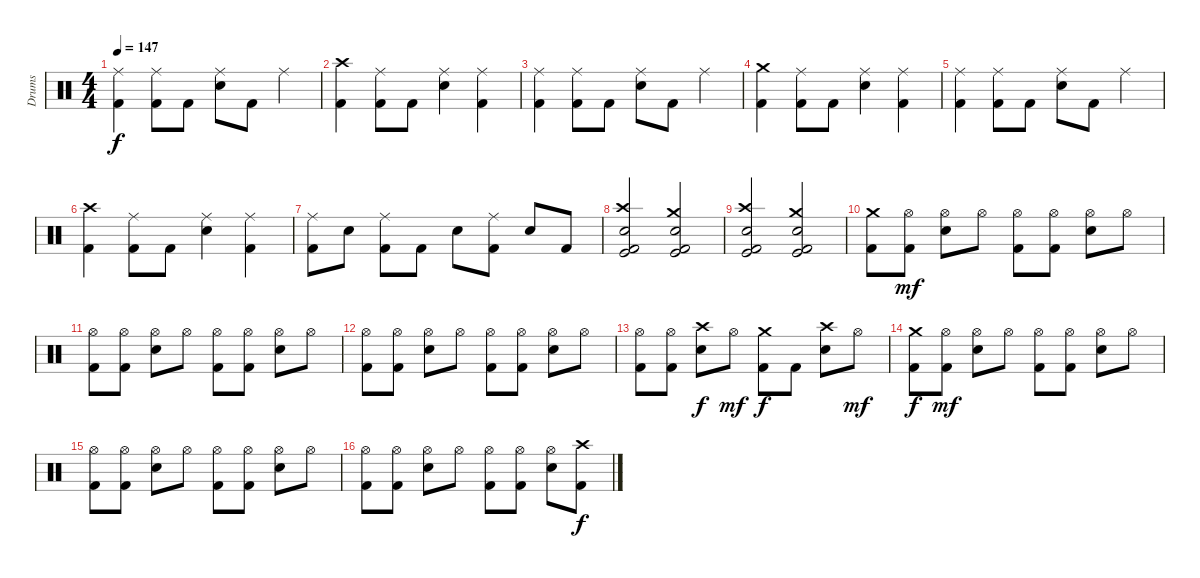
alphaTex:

\track ("Drums" "Drums") {instrument percussion}
\staff {score}
\articulation defaults
\ts (4 4)
\tempo 147
\clef neutral
\ks c
("Ride (middle)" "Kick (hit) 2").4{dy f} ("Ride (middle)" "Kick (hit) 2").8 "Kick (hit) 2".8 ("Ride (middle)" "Snare (hit) 2").8 "Kick (hit) 2".8 "Ride (middle)".4 |
("Crash high (hit)" "Kick (hit) 2").4 ("Ride (middle)" "Kick (hit) 2").8 "Kick (hit) 2".8 ("Ride (middle)" "Snare (hit) 2").4 ("Ride (middle)" "Kick (hit) 2").4 |
("Ride (middle)" "Kick (hit) 2").4 ("Ride (middle)" "Kick (hit) 2").8 "Kick (hit) 2".8 ("Ride (middle)" "Snare (hit) 2").8 "Kick (hit) 2".8 "Ride (middle)".4 |
("Crash medium (hit)" "Kick (hit) 2").4 ("Ride (middle)" "Kick (hit) 2").8 "Kick (hit) 2".8 ("Ride (middle)" "Snare (hit) 2").4 ("Ride (middle)" "Kick (hit) 2").4 |
("Ride (middle)" "Kick (hit) 2").4 ("Ride (middle)" "Kick (hit) 2").8 "Kick (hit) 2".8 ("Ride (middle)" "Snare (hit) 2").8 "Kick (hit) 2".8 "Ride (middle)".4 |
("Crash high (hit)" "Kick (hit) 2").4 ("Ride (middle)" "Kick (hit) 2").8 "Kick (hit) 2".8 ("Ride (middle)" "Snare (hit) 2").4 ("Ride (middle)" "Kick (hit) 2").4 |
("Ride (middle)" "Kick (hit) 2").8 "Snare (hit) 2".8 ("Ride (middle)" "Kick (hit) 2").8 "Kick (hit) 2".8 "Snare (hit) 2".8 ("Ride (middle)" "Kick (hit) 2").8 "Snare (hit) 2".8 "Kick (hit) 2".8 |
("Crash high (hit)" "Kick (hit) 2" "Kick (hit)" "Snare (hit) 2").2 ("Crash medium (hit)" "Kick (hit) 2" "Kick (hit)" "Snare (hit) 2").2 |
("Crash high (hit)" "Kick (hit) 2" "Kick (hit)" "Snare (hit) 2").2 ("Crash medium (hit)" "Kick (hit) 2" "Kick (hit)" "Snare (hit) 2").2 |
("Crash medium (hit)" "Kick (hit) 2").8 ("Hi-Hat (open)" "Kick (hit) 2").8{dy mf} ("Hi-Hat (open)" "Snare (hit) 2").8 "Hi-Hat (open)".8 ("Hi-Hat (open)" "Kick (hit) 2").8 ("Hi-Hat (open)" "Kick (hit) 2").8 ("Hi-Hat (open)" "Snare (hit) 2").8 "Hi-Hat (open)".8 |
("Hi-Hat (open)" "Kick (hit) 2").8 ("Hi-Hat (open)" "Kick (hit) 2").8 ("Hi-Hat (open)" "Snare (hit) 2").8 "Hi-Hat (open)".8 ("Hi-Hat (open)" "Kick (hit) 2").8 ("Hi-Hat (open)" "Kick (hit) 2").8 ("Hi-Hat (open)" "Snare (hit) 2").8 "Hi-Hat (open)".8 |
("Hi-Hat (open)" "Kick (hit) 2").8 ("Hi-Hat (open)" "Kick (hit) 2").8 ("Hi-Hat (open)" "Snare (hit) 2").8 "Hi-Hat (open)".8 ("Hi-Hat (open)" "Kick (hit) 2").8 ("Hi-Hat (open)" "Kick (hit) 2").8 ("Hi-Hat (open)" "Snare (hit) 2").8 "Hi-Hat (open)".8 |
("Hi-Hat (open)" "Kick (hit) 2").8 ("Hi-Hat (open)" "Kick (hit) 2").8 ("Crash high (hit)" "Snare (hit) 2").8{dy f} "Hi-Hat (open)".8{dy mf} ("Crash medium (hit)" "Kick (hit) 2").8{dy f} "Kick (hit) 2".8 ("Crash high (hit)" "Snare (hit) 2").8 "Hi-Hat (open)".8{dy mf} |
("Crash medium (hit)" "Kick (hit) 2").8{dy f} ("Hi-Hat (open)" "Kick (hit) 2").8{dy mf} ("Hi-Hat (open)" "Snare (hit) 2").8 "Hi-Hat (open)".8 ("Hi-Hat (open)" "Kick (hit) 2").8 ("Hi-Hat (open)" "Kick (hit) 2").8 ("Hi-Hat (open)" "Snare (hit) 2").8 "Hi-Hat (open)".8 |
("Hi-Hat (open)" "Kick (hit) 2").8 ("Hi-Hat (open)" "Kick (hit) 2").8 ("Hi-Hat (open)" "Snare (hit) 2").8 "Hi-Hat (open)".8 ("Hi-Hat (open)" "Kick (hit) 2").8 ("Hi-Hat (open)" "Kick (hit) 2").8 ("Hi-Hat (open)" "Snare (hit) 2").8 "Hi-Hat (open)".8 |
("Hi-Hat (open)" "Kick (hit) 2").8 ("Hi-Hat (open)" "Kick (hit) 2").8 ("Hi-Hat (open)" "Snare (hit) 2").8 "Hi-Hat (open)".8 ("Hi-Hat (open)" "Kick (hit) 2").8 ("Hi-Hat (open)" "Kick (hit) 2").8 ("Hi-Hat (open)" "Snare (hit) 2").8 ("Crash high (hit)" "Kick (hit) 2").8{dy f}
